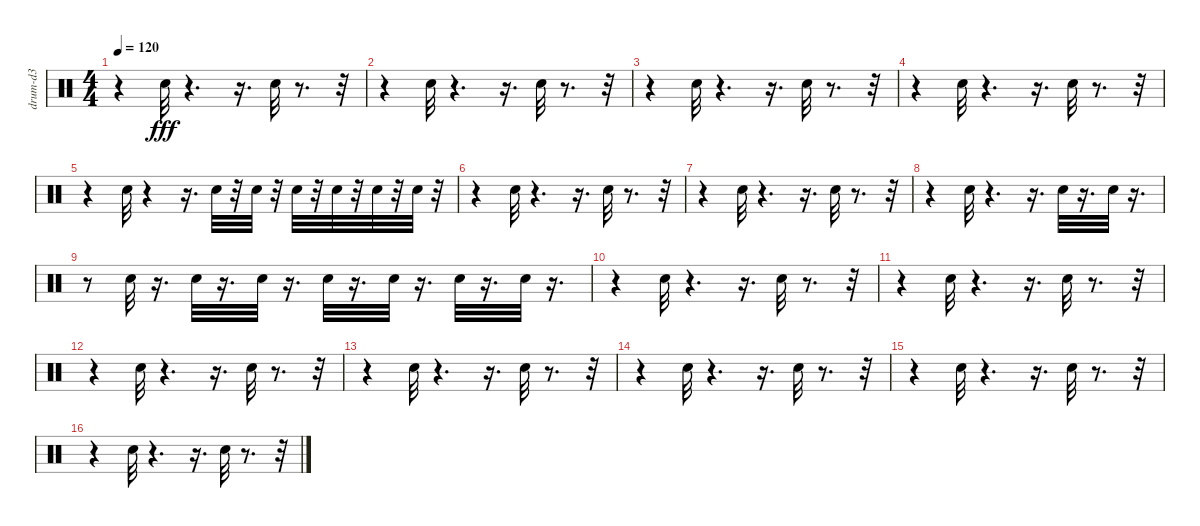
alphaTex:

\track ("drum-d3" "drum-d3") {instrument percussion}
\staff {score}
\articulation defaults
\ts (4 4)
\tempo 120
\clef neutral
\ks c
r.4{dy fff} "Snare (hit) 2".32 r.4{d} r.16{d} "Snare (hit) 2".32 r.8{d} r.32 |
r.4 "Snare (hit) 2".32 r.4{d} r.16{d} "Snare (hit) 2".32 r.8{d} r.32 |
r.4 "Snare (hit) 2".32 r.4{d} r.16{d} "Snare (hit) 2".32 r.8{d} r.32 |
r.4 "Snare (hit) 2".32 r.4{d} r.16{d} "Snare (hit) 2".32 r.8{d} r.32 |
r.4 "Snare (hit) 2".32 r.4 r.16{d} "Snare (hit) 2".32 r.32 "Snare (hit) 2".32 r.32 "Snare (hit) 2".32 r.32 "Snare (hit) 2".32 r.32 "Snare (hit) 2".32 r.32 "Snare (hit) 2".32 r.32 |
r.4 "Snare (hit) 2".32 r.4{d} r.16{d} "Snare (hit) 2".32 r.8{d} r.32 |
r.4 "Snare (hit) 2".32 r.4{d} r.16{d} "Snare (hit) 2".32 r.8{d} r.32 |
r.4 "Snare (hit) 2".32 r.4{d} r.16{d} "Snare (hit) 2".32 r.16{d} "Snare (hit) 2".32 r.16{d} |
r.8 "Snare (hit) 2".32 r.16{d} "Snare (hit) 2".32 r.16{d} "Snare (hit) 2".32 r.16{d} "Snare (hit) 2".32 r.16{d} "Snare (hit) 2".32 r.16{d} "Snare (hit) 2".32 r.16{d} "Snare (hit) 2".32 r.16{d} |
r.4 "Snare (hit) 2".32 r.4{d} r.16{d} "Snare (hit) 2".32 r.8{d} r.32 |
r.4 "Snare (hit) 2".32 r.4{d} r.16{d} "Snare (hit) 2".32 r.8{d} r.32 |
r.4 "Snare (hit) 2".32 r.4{d} r.16{d} "Snare (hit) 2".32 r.8{d} r.32 |
r.4 "Snare (hit) 2".32 r.4{d} r.16{d} "Snare (hit) 2".32 r.8{d} r.32 |
r.4 "Snare (hit) 2".32 r.4{d} r.16{d} "Snare (hit) 2".32 r.8{d} r.32 |
r.4 "Snare (hit) 2".32 r.4{d} r.16{d} "Snare (hit) 2".32 r.8{d} r.32 |
r.4 "Snare (hit) 2".32 r.4{d} r.16{d} "Snare (hit) 2".32 r.8{d} r.32
